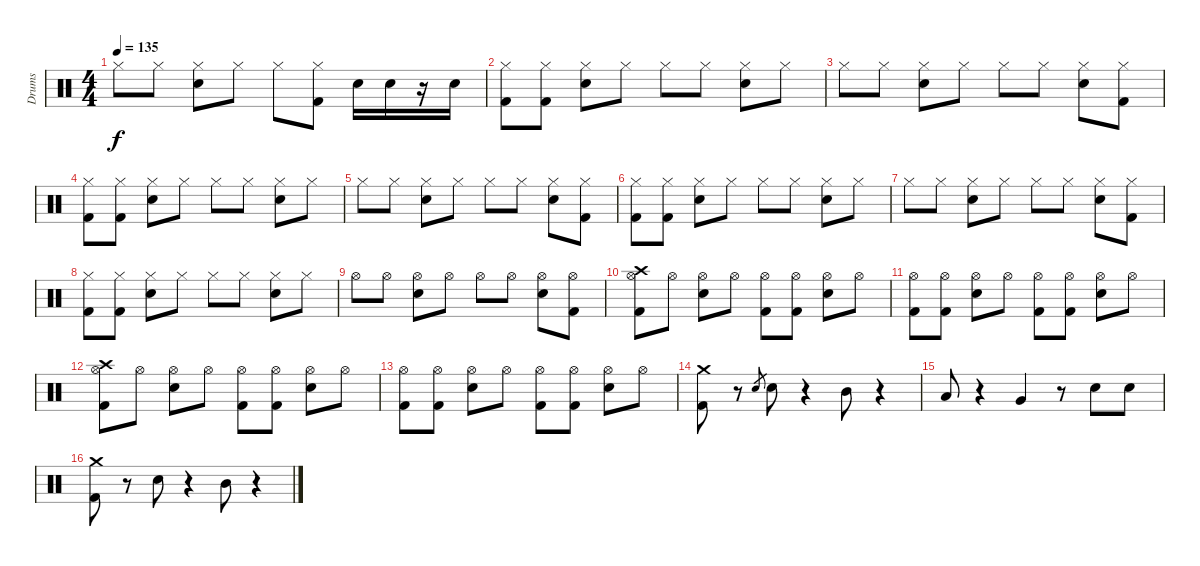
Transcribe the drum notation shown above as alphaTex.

\track ("Drums" "Drums") {instrument percussion}
\staff {score}
\articulation defaults
\ts (4 4)
\tempo 135
\clef neutral
\ks c "Hi-Hat (closed)".8{dy f} "Hi-Hat (closed)".8
("Hi-Hat (closed)" "Electric Snare (hit)").8 "Hi-Hat (closed)".8 "Hi-Hat (closed)".8 ("Hi-Hat (closed)" "Kick (hit) 2").8 "Electric Snare (hit)".16 "Electric Snare (hit)".16 r.16 "Electric Snare (hit)".16 |
("Hi-Hat (closed)" "Kick (hit) 2").8 ("Hi-Hat (closed)" "Kick (hit) 2").8 ("Hi-Hat (closed)" "Electric Snare (hit)").8 "Hi-Hat (closed)".8 "Hi-Hat (closed)".8 "Hi-Hat (closed)".8 ("Hi-Hat (closed)" "Electric Snare (hit)").8 "Hi-Hat (closed)".8 |
"Hi-Hat (closed)".8 "Hi-Hat (closed)".8 ("Hi-Hat (closed)" "Electric Snare (hit)").8 "Hi-Hat (closed)".8 "Hi-Hat (closed)".8 "Hi-Hat (closed)".8 ("Hi-Hat (closed)" "Electric Snare (hit)").8 ("Hi-Hat (closed)" "Kick (hit) 2").8 |
("Hi-Hat (closed)" "Kick (hit) 2").8 ("Hi-Hat (closed)" "Kick (hit) 2").8 ("Hi-Hat (closed)" "Electric Snare (hit)").8 "Hi-Hat (closed)".8 "Hi-Hat (closed)".8 "Hi-Hat (closed)".8 ("Hi-Hat (closed)" "Electric Snare (hit)").8 "Hi-Hat (closed)".8 |
"Hi-Hat (closed)".8 "Hi-Hat (closed)".8 ("Hi-Hat (closed)" "Electric Snare (hit)").8 "Hi-Hat (closed)".8 "Hi-Hat (closed)".8 "Hi-Hat (closed)".8 ("Hi-Hat (closed)" "Electric Snare (hit)").8 ("Hi-Hat (closed)" "Kick (hit) 2").8 |
("Hi-Hat (closed)" "Kick (hit) 2").8 ("Hi-Hat (closed)" "Kick (hit) 2").8 ("Hi-Hat (closed)" "Electric Snare (hit)").8 "Hi-Hat (closed)".8 "Hi-Hat (closed)".8 "Hi-Hat (closed)".8 ("Hi-Hat (closed)" "Electric Snare (hit)").8 "Hi-Hat (closed)".8 |
"Hi-Hat (closed)".8 "Hi-Hat (closed)".8 ("Hi-Hat (closed)" "Electric Snare (hit)").8 "Hi-Hat (closed)".8 "Hi-Hat (closed)".8 "Hi-Hat (closed)".8 ("Hi-Hat (closed)" "Electric Snare (hit)").8 ("Hi-Hat (closed)" "Kick (hit) 2").8 |
("Hi-Hat (closed)" "Kick (hit) 2").8 ("Hi-Hat (closed)" "Kick (hit) 2").8 ("Hi-Hat (closed)" "Electric Snare (hit)").8 "Hi-Hat (closed)".8 "Hi-Hat (closed)".8 "Hi-Hat (closed)".8 ("Hi-Hat (closed)" "Electric Snare (hit)").8 "Hi-Hat (closed)".8 |
"Hi-Hat (open)".8 "Hi-Hat (open)".8 ("Hi-Hat (open)" "Electric Snare (hit)").8 "Hi-Hat (open)".8 "Hi-Hat (open)".8 "Hi-Hat (open)".8 ("Hi-Hat (open)" "Electric Snare (hit)").8 ("Hi-Hat (open)" "Kick (hit) 2").8 |
("Crash high (hit)" "Hi-Hat (open)" "Kick (hit) 2").8 "Hi-Hat (open)".8 ("Hi-Hat (open)" "Electric Snare (hit)").8 "Hi-Hat (open)".8 ("Hi-Hat (open)" "Kick (hit) 2").8 ("Hi-Hat (open)" "Kick (hit) 2").8 ("Hi-Hat (open)" "Electric Snare (hit)").8 "Hi-Hat (open)".8 |
("Hi-Hat (open)" "Kick (hit) 2").8 ("Hi-Hat (open)" "Kick (hit) 2").8 ("Hi-Hat (open)" "Electric Snare (hit)").8 "Hi-Hat (open)".8 ("Hi-Hat (open)" "Kick (hit) 2").8 ("Hi-Hat (open)" "Kick (hit) 2").8 ("Hi-Hat (open)" "Electric Snare (hit)").8 "Hi-Hat (open)".8 |
("Crash high (hit)" "Hi-Hat (open)" "Kick (hit) 2").8 "Hi-Hat (open)".8 ("Hi-Hat (open)" "Electric Snare (hit)").8 "Hi-Hat (open)".8 ("Hi-Hat (open)" "Kick (hit) 2").8 ("Hi-Hat (open)" "Kick (hit) 2").8 ("Hi-Hat (open)" "Electric Snare (hit)").8 "Hi-Hat (open)".8 |
("Hi-Hat (open)" "Kick (hit) 2").8 ("Hi-Hat (open)" "Kick (hit) 2").8 ("Hi-Hat (open)" "Electric Snare (hit)").8 "Hi-Hat (open)".8 ("Hi-Hat (open)" "Kick (hit) 2").8 ("Hi-Hat (open)" "Kick (hit) 2").8 ("Hi-Hat (open)" "Electric Snare (hit)").8 "Hi-Hat (open)".8 |
("Crash medium (hit)" "Kick (hit) 2").8 r.8 "Electric Snare (hit)".8{gr} "Electric Snare (hit)".8 r.4 "Mid Tom (hit)".8 r.4 |
"Low Tom (hit)".8 r.4 "Very Low Tom (hit)".4 r.8 "Electric Snare (hit)".8 "Electric Snare (hit)".8 |
("Crash medium (hit)" "Kick (hit) 2").8 r.8 "Electric Snare (hit)".8 r.4 "Mid Tom (hit)".8 r.4
